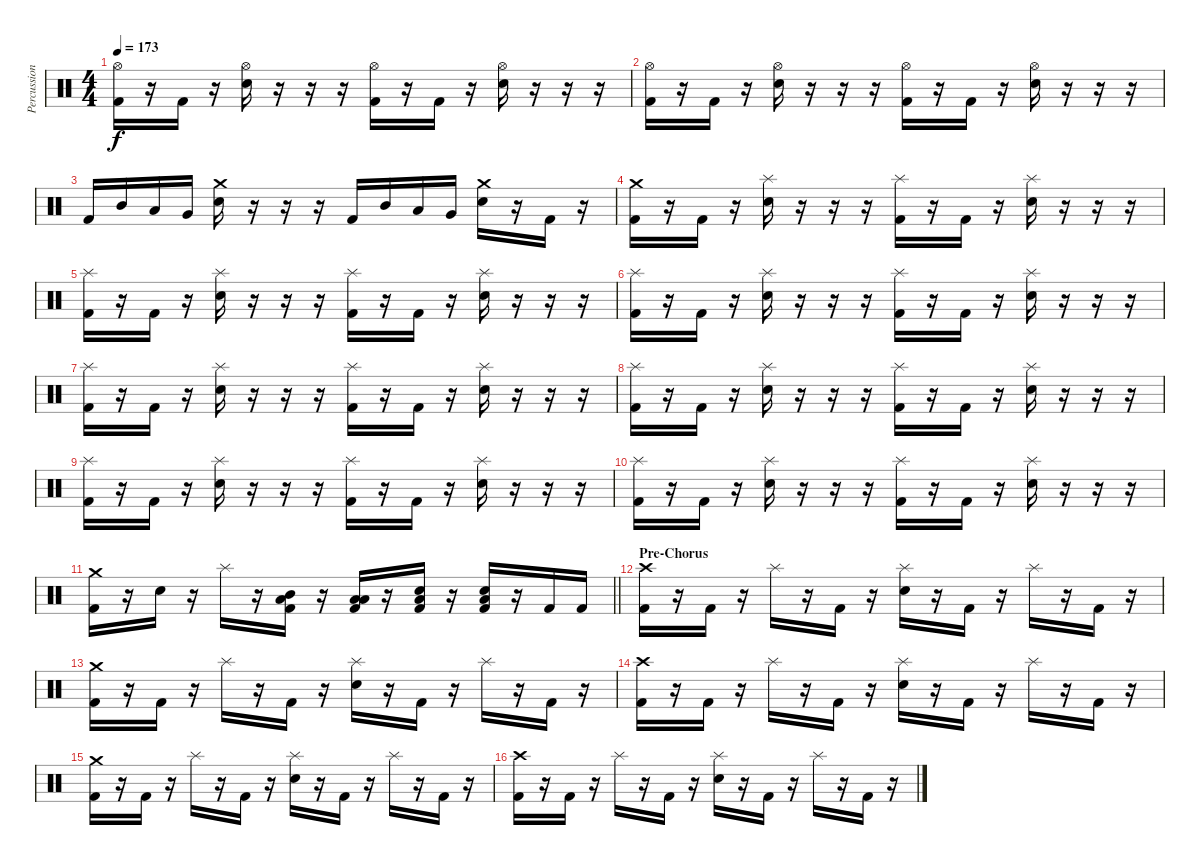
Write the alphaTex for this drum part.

\track ("Percussion" "Percussion") {instrument percussion}
\staff {score}
\articulation defaults
\ts (4 4)
\tempo 173
\clef neutral
\ks c
("Hi-Hat (open)" "Kick (hit) 2").16{dy f} r.16 "Kick (hit) 2".16 r.16 ("Hi-Hat (open)" "Electric Snare (hit)").16 r.16 r.16 r.16 ("Hi-Hat (open)" "Kick (hit) 2").16 r.16 "Kick (hit) 2".16 r.16 ("Hi-Hat (open)" "Electric Snare (hit)").16 r.16 r.16 r.16 |
("Hi-Hat (open)" "Kick (hit) 2").16 r.16 "Kick (hit) 2".16 r.16 ("Hi-Hat (open)" "Electric Snare (hit)").16 r.16 r.16 r.16 ("Hi-Hat (open)" "Kick (hit) 2").16 r.16 "Kick (hit) 2".16 r.16 ("Hi-Hat (open)" "Electric Snare (hit)").16 r.16 r.16 r.16 |
"Kick (hit) 2".16 "Mid Tom (hit)".16 "Low Tom (hit)".16 "Very Low Tom (hit)".16 ("Crash medium (hit)" "Electric Snare (hit)").16 r.16 r.16 r.16 "Kick (hit) 2".16 "Mid Tom (hit)".16 "Low Tom (hit)".16 "Very Low Tom (hit)".16 ("Crash medium (hit)" "Electric Snare (hit)").16 r.16 "Kick (hit) 2".16 r.16 |
("Crash medium (hit)" "Kick (hit) 2").16 r.16 "Kick (hit) 2".16 r.16 ("Splash (hit)" "Electric Snare (hit)").16 r.16 r.16 r.16 ("Splash (hit)" "Kick (hit) 2").16 r.16 "Kick (hit) 2".16 r.16 ("Splash (hit)" "Electric Snare (hit)").16 r.16 r.16 r.16 |
("Splash (hit)" "Kick (hit) 2").16 r.16 "Kick (hit) 2".16 r.16 ("Splash (hit)" "Electric Snare (hit)").16 r.16 r.16 r.16 ("Splash (hit)" "Kick (hit) 2").16 r.16 "Kick (hit) 2".16 r.16 ("Splash (hit)" "Electric Snare (hit)").16 r.16 r.16 r.16 |
("Splash (hit)" "Kick (hit) 2").16 r.16 "Kick (hit) 2".16 r.16 ("Splash (hit)" "Electric Snare (hit)").16 r.16 r.16 r.16 ("Splash (hit)" "Kick (hit) 2").16 r.16 "Kick (hit) 2".16 r.16 ("Splash (hit)" "Electric Snare (hit)").16 r.16 r.16 r.16 |
("Splash (hit)" "Kick (hit) 2").16 r.16 "Kick (hit) 2".16 r.16 ("Splash (hit)" "Electric Snare (hit)").16 r.16 r.16 r.16 ("Splash (hit)" "Kick (hit) 2").16 r.16 "Kick (hit) 2".16 r.16 ("Splash (hit)" "Electric Snare (hit)").16 r.16 r.16 r.16 |
("Splash (hit)" "Kick (hit) 2").16 r.16 "Kick (hit) 2".16 r.16 ("Splash (hit)" "Electric Snare (hit)").16 r.16 r.16 r.16 ("Splash (hit)" "Kick (hit) 2").16 r.16 "Kick (hit) 2".16 r.16 ("Splash (hit)" "Electric Snare (hit)").16 r.16 r.16 r.16 |
("Splash (hit)" "Kick (hit) 2").16 r.16 "Kick (hit) 2".16 r.16 ("Splash (hit)" "Electric Snare (hit)").16 r.16 r.16 r.16 ("Splash (hit)" "Kick (hit) 2").16 r.16 "Kick (hit) 2".16 r.16 ("Splash (hit)" "Electric Snare (hit)").16 r.16 r.16 r.16 |
("Splash (hit)" "Kick (hit) 2").16 r.16 "Kick (hit) 2".16 r.16 ("Splash (hit)" "Electric Snare (hit)").16 r.16 r.16 r.16 ("Splash (hit)" "Kick (hit) 2").16 r.16 "Kick (hit) 2".16 r.16 ("Splash (hit)" "Electric Snare (hit)").16 r.16 r.16 r.16 |
\barLineRight lightlight
("Crash medium (hit)" "Kick (hit) 2").16 r.16 "Electric Snare (hit)".16 r.16 "Splash (hit)".16 r.16 ("Mid Tom (hit)" "Low Floor Tom (hit)" "Kick (hit) 2").16 r.16 ("Low Tom (hit)" "Low Floor Tom (hit)" "Kick (hit) 2").16 r.16 ("Electric Snare (hit)" "Low Floor Tom (hit)" "Kick (hit) 2").16 r.16 ("Electric Snare (hit)" "Low Floor Tom (hit)" "Kick (hit) 2").16 r.16 "Kick (hit) 2".16 "Kick (hit) 2".16 |
\section ("" "Pre-Chorus")
("Crash high (hit)" "Kick (hit) 2").16 r.16 "Kick (hit) 2".16 r.16 "Splash (hit)".16 r.16 "Kick (hit) 2".16 r.16 ("Splash (hit)" "Electric Snare (hit)").16 r.16 "Kick (hit) 2".16 r.16 "Splash (hit)".16 r.16 "Kick (hit) 2".16 r.16 |
("Crash medium (hit)" "Kick (hit) 2").16 r.16 "Kick (hit) 2".16 r.16 "Splash (hit)".16 r.16 "Kick (hit) 2".16 r.16 ("Splash (hit)" "Electric Snare (hit)").16 r.16 "Kick (hit) 2".16 r.16 "Splash (hit)".16 r.16 "Kick (hit) 2".16 r.16 |
("Crash high (hit)" "Kick (hit) 2").16 r.16 "Kick (hit) 2".16 r.16 "Splash (hit)".16 r.16 "Kick (hit) 2".16 r.16 ("Splash (hit)" "Electric Snare (hit)").16 r.16 "Kick (hit) 2".16 r.16 "Splash (hit)".16 r.16 "Kick (hit) 2".16 r.16 |
("Crash medium (hit)" "Kick (hit) 2").16 r.16 "Kick (hit) 2".16 r.16 "Splash (hit)".16 r.16 "Kick (hit) 2".16 r.16 ("Splash (hit)" "Electric Snare (hit)").16 r.16 "Kick (hit) 2".16 r.16 "Splash (hit)".16 r.16 "Kick (hit) 2".16 r.16 |
("Crash high (hit)" "Kick (hit) 2").16 r.16 "Kick (hit) 2".16 r.16 "Splash (hit)".16 r.16 "Kick (hit) 2".16 r.16 ("Splash (hit)" "Electric Snare (hit)").16 r.16 "Kick (hit) 2".16 r.16 "Splash (hit)".16 r.16 "Kick (hit) 2".16 r.16
